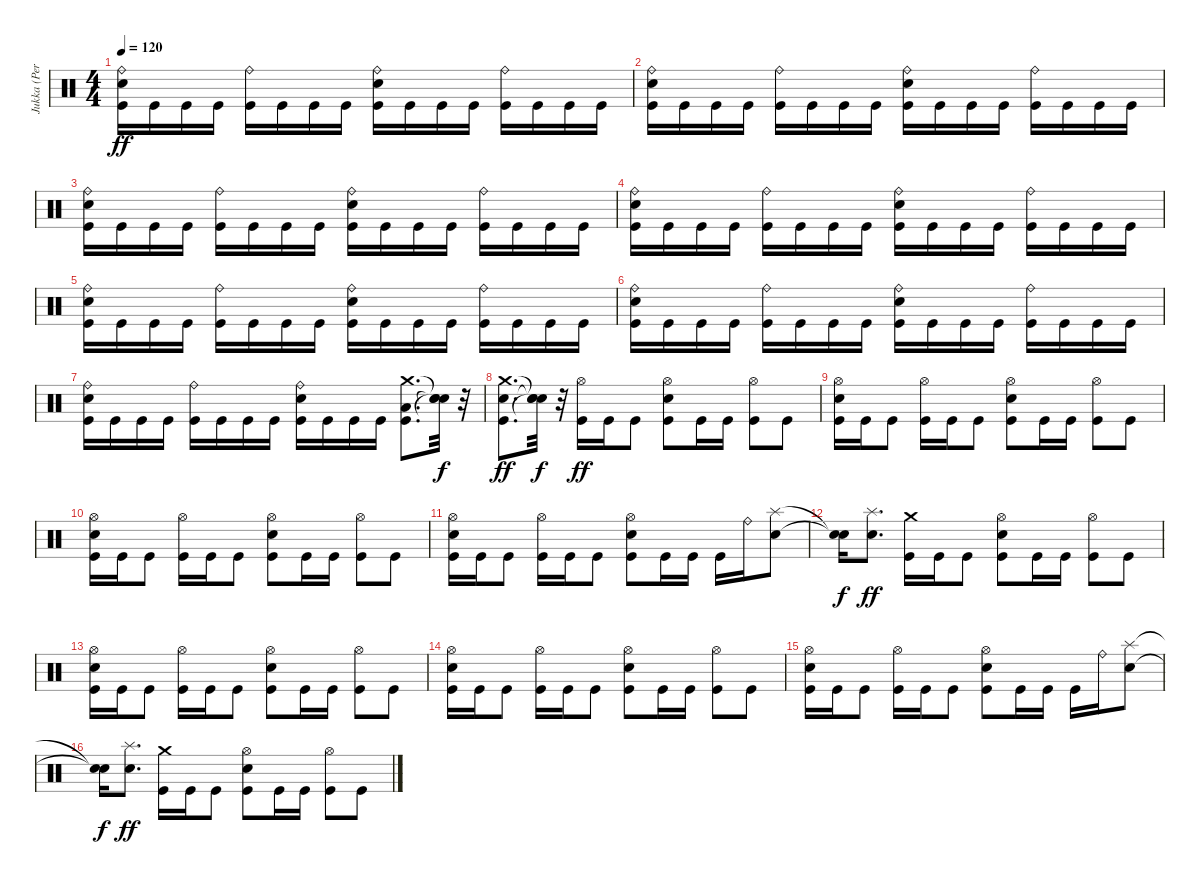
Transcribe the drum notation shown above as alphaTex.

\track ("Jukka (Percussion)" "Jukka (Per") {instrument percussion}
\staff {score}
\articulation defaults
\ts (4 4)
\tempo 120
\clef neutral
\ks c
("Kick (hit)" "Electric Snare (hit)" "Ride (bell)").16{dy ff} "Kick (hit)".16 "Kick (hit)".16 "Kick (hit)".16 ("Kick (hit)" "Ride (bell)").16 "Kick (hit)".16 "Kick (hit)".16 "Kick (hit)".16 ("Kick (hit)" "Electric Snare (hit)" "Ride (bell)").16 "Kick (hit)".16 "Kick (hit)".16 "Kick (hit)".16 ("Kick (hit)" "Ride (bell)").16 "Kick (hit)".16 "Kick (hit)".16 "Kick (hit)".16 |
("Kick (hit)" "Electric Snare (hit)" "Ride (bell)").16 "Kick (hit)".16 "Kick (hit)".16 "Kick (hit)".16 ("Kick (hit)" "Ride (bell)").16 "Kick (hit)".16 "Kick (hit)".16 "Kick (hit)".16 ("Kick (hit)" "Electric Snare (hit)" "Ride (bell)").16 "Kick (hit)".16 "Kick (hit)".16 "Kick (hit)".16 ("Kick (hit)" "Ride (bell)").16 "Kick (hit)".16 "Kick (hit)".16 "Kick (hit)".16 |
("Kick (hit)" "Electric Snare (hit)" "Ride (bell)").16 "Kick (hit)".16 "Kick (hit)".16 "Kick (hit)".16 ("Kick (hit)" "Ride (bell)").16 "Kick (hit)".16 "Kick (hit)".16 "Kick (hit)".16 ("Kick (hit)" "Electric Snare (hit)" "Ride (bell)").16 "Kick (hit)".16 "Kick (hit)".16 "Kick (hit)".16 ("Kick (hit)" "Ride (bell)").16 "Kick (hit)".16 "Kick (hit)".16 "Kick (hit)".16 |
("Kick (hit)" "Electric Snare (hit)" "Ride (bell)").16 "Kick (hit)".16 "Kick (hit)".16 "Kick (hit)".16 ("Kick (hit)" "Ride (bell)").16 "Kick (hit)".16 "Kick (hit)".16 "Kick (hit)".16 ("Kick (hit)" "Electric Snare (hit)" "Ride (bell)").16 "Kick (hit)".16 "Kick (hit)".16 "Kick (hit)".16 ("Kick (hit)" "Ride (bell)").16 "Kick (hit)".16 "Kick (hit)".16 "Kick (hit)".16 |
("Kick (hit)" "Electric Snare (hit)" "Ride (bell)").16 "Kick (hit)".16 "Kick (hit)".16 "Kick (hit)".16 ("Kick (hit)" "Ride (bell)").16 "Kick (hit)".16 "Kick (hit)".16 "Kick (hit)".16 ("Kick (hit)" "Electric Snare (hit)" "Ride (bell)").16 "Kick (hit)".16 "Kick (hit)".16 "Kick (hit)".16 ("Kick (hit)" "Ride (bell)").16 "Kick (hit)".16 "Kick (hit)".16 "Kick (hit)".16 |
("Kick (hit)" "Electric Snare (hit)" "Ride (bell)").16 "Kick (hit)".16 "Kick (hit)".16 "Kick (hit)".16 ("Kick (hit)" "Ride (bell)").16 "Kick (hit)".16 "Kick (hit)".16 "Kick (hit)".16 ("Kick (hit)" "Electric Snare (hit)" "Ride (bell)").16 "Kick (hit)".16 "Kick (hit)".16 "Kick (hit)".16 ("Kick (hit)" "Ride (bell)").16 "Kick (hit)".16 "Kick (hit)".16 "Kick (hit)".16 |
("Kick (hit)" "Electric Snare (hit)" "Ride (bell)").16 "Kick (hit)".16 "Kick (hit)".16 "Kick (hit)".16 ("Kick (hit)" "Ride (bell)").16 "Kick (hit)".16 "Kick (hit)".16 "Kick (hit)".16 ("Kick (hit)" "Electric Snare (hit)" "Ride (bell)").16 "Kick (hit)".16 "Kick (hit)".16 "Kick (hit)".16 ("Kick (hit)" "Low Tom (hit)" "Crash medium (hit)").8{d} ("Snare (hit)"{t} "Snare (hit)"{t} "Snare (hit)"{t}).32{dy f} r.32 |
("Kick (hit)" "Electric Snare (hit)" "Crash medium (hit)").8{d dy ff} ("Snare (hit)"{t} "Snare (hit)"{t} "Snare (hit)"{t}).32{dy f} r.32 ("Kick (hit)" "Hi-Hat (open)").16{dy ff} "Kick (hit)".16 "Kick (hit)".8 ("Kick (hit)" "Electric Snare (hit)" "Hi-Hat (open)").8 "Kick (hit)".16 "Kick (hit)".16 ("Kick (hit)" "Hi-Hat (open)").8 "Kick (hit)".8 |
("Kick (hit)" "Electric Snare (hit)" "Hi-Hat (open)").16 "Kick (hit)".16 "Kick (hit)".8 ("Kick (hit)" "Hi-Hat (open)").16 "Kick (hit)".16 "Kick (hit)".8 ("Kick (hit)" "Electric Snare (hit)" "Hi-Hat (open)").8 "Kick (hit)".16 "Kick (hit)".16 ("Kick (hit)" "Hi-Hat (open)").8 "Kick (hit)".8 |
("Kick (hit)" "Electric Snare (hit)" "Hi-Hat (open)").16 "Kick (hit)".16 "Kick (hit)".8 ("Kick (hit)" "Hi-Hat (open)").16 "Kick (hit)".16 "Kick (hit)".8 ("Kick (hit)" "Electric Snare (hit)" "Hi-Hat (open)").8 "Kick (hit)".16 "Kick (hit)".16 ("Kick (hit)" "Hi-Hat (open)").8 "Kick (hit)".8 |
("Kick (hit)" "Electric Snare (hit)" "Hi-Hat (open)").16 "Kick (hit)".16 "Kick (hit)".8 ("Kick (hit)" "Hi-Hat (open)").16 "Kick (hit)".16 "Kick (hit)".8 ("Kick (hit)" "Electric Snare (hit)" "Hi-Hat (open)").8 "Kick (hit)".16 "Kick (hit)".16 "Kick (hit)".16 "Ride (bell)".16 ("Electric Snare (hit)" "Splash (hit)").8 |
("Snare (hit)"{t} "Snare (hit)"{t}).16{dy f} ("Electric Snare (hit)" "Splash (hit)").8{d dy ff} ("Kick (hit)" "Crash medium (hit)").16 "Kick (hit)".16 "Kick (hit)".8 ("Kick (hit)" "Electric Snare (hit)" "Hi-Hat (open)").8 "Kick (hit)".16 "Kick (hit)".16 ("Kick (hit)" "Hi-Hat (open)").8 "Kick (hit)".8 |
("Kick (hit)" "Electric Snare (hit)" "Hi-Hat (open)").16 "Kick (hit)".16 "Kick (hit)".8 ("Kick (hit)" "Hi-Hat (open)").16 "Kick (hit)".16 "Kick (hit)".8 ("Kick (hit)" "Electric Snare (hit)" "Hi-Hat (open)").8 "Kick (hit)".16 "Kick (hit)".16 ("Kick (hit)" "Hi-Hat (open)").8 "Kick (hit)".8 |
("Kick (hit)" "Electric Snare (hit)" "Hi-Hat (open)").16 "Kick (hit)".16 "Kick (hit)".8 ("Kick (hit)" "Hi-Hat (open)").16 "Kick (hit)".16 "Kick (hit)".8 ("Kick (hit)" "Electric Snare (hit)" "Hi-Hat (open)").8 "Kick (hit)".16 "Kick (hit)".16 ("Kick (hit)" "Hi-Hat (open)").8 "Kick (hit)".8 |
("Kick (hit)" "Electric Snare (hit)" "Hi-Hat (open)").16 "Kick (hit)".16 "Kick (hit)".8 ("Kick (hit)" "Hi-Hat (open)").16 "Kick (hit)".16 "Kick (hit)".8 ("Kick (hit)" "Electric Snare (hit)" "Hi-Hat (open)").8 "Kick (hit)".16 "Kick (hit)".16 "Kick (hit)".16 "Ride (bell)".16 ("Electric Snare (hit)" "Splash (hit)").8 |
("Snare (hit)"{t} "Snare (hit)"{t}).16{dy f} ("Electric Snare (hit)" "Splash (hit)").8{d dy ff} ("Kick (hit)" "Crash medium (hit)").16 "Kick (hit)".16 "Kick (hit)".8 ("Kick (hit)" "Electric Snare (hit)" "Hi-Hat (open)").8 "Kick (hit)".16 "Kick (hit)".16 ("Kick (hit)" "Hi-Hat (open)").8 "Kick (hit)".8
